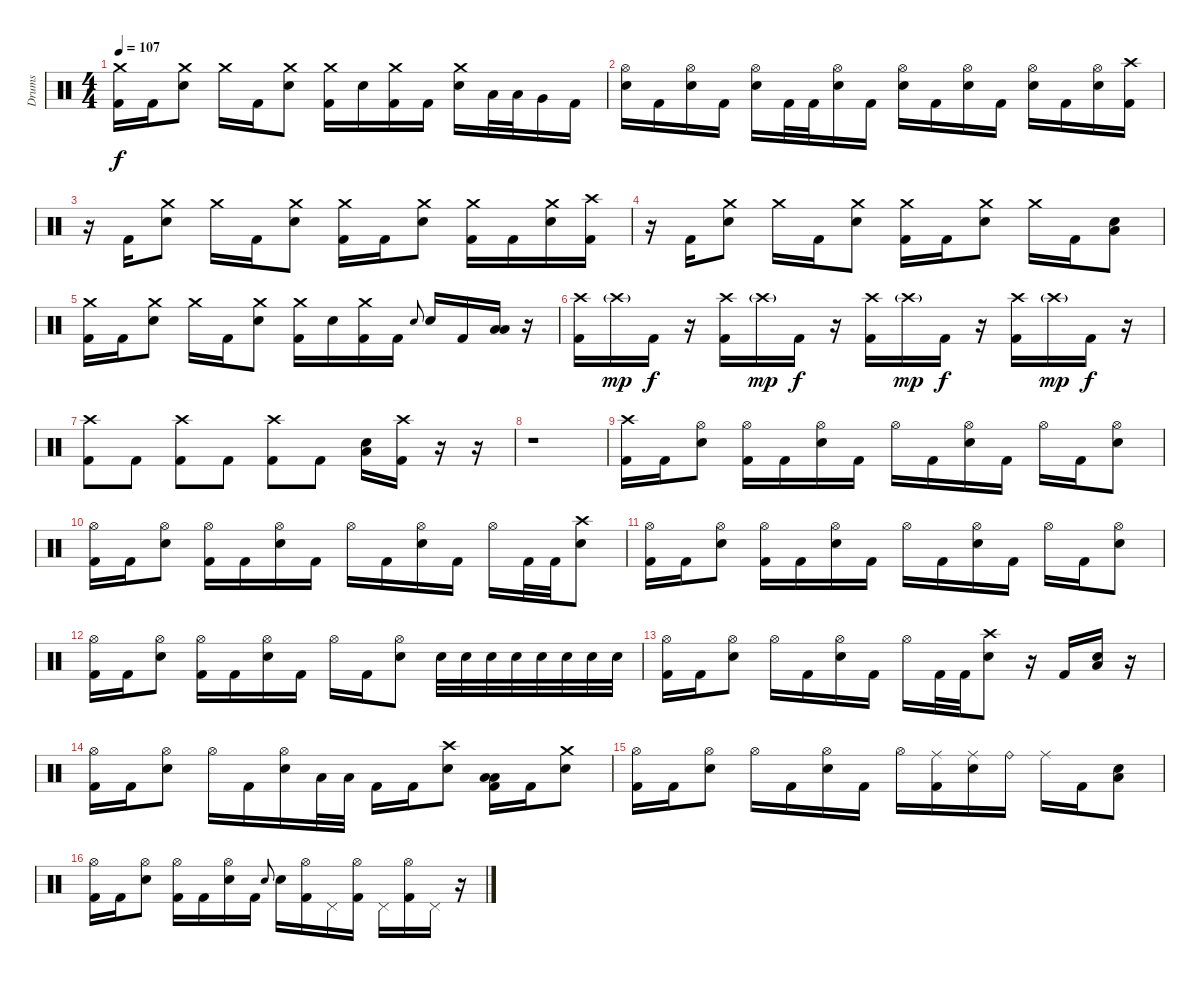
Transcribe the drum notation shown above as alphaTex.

\track ("Drums" "Drums") {instrument percussion}
\staff {score}
\articulation defaults
\ts (4 4)
\tempo 107
\clef neutral
\ks c
("Crash medium (hit)" "Kick (hit) 2").16{dy f} "Kick (hit) 2".16 ("Crash medium (hit)" "Snare (hit) 2").8 "Crash medium (hit)".16 "Kick (hit) 2".16 ("Crash medium (hit)" "Snare (hit) 2").8 ("Crash medium (hit)" "Kick (hit) 2").16 "Snare (hit) 2".16 ("Crash medium (hit)" "Kick (hit) 2").16 "Kick (hit) 2".16 ("Crash medium (hit)" "Snare (hit) 2").16 "Low Tom (hit)".32 "Low Tom (hit)".32 "Very Low Tom (hit)".16 "Kick (hit) 2".16 |
("Hi-Hat (open)" "Snare (hit) 2").16 "Kick (hit) 2".16 ("Hi-Hat (open)" "Snare (hit) 2").16 "Kick (hit) 2".16 ("Hi-Hat (open)" "Snare (hit) 2").16 "Kick (hit) 2".32 "Kick (hit) 2".32 ("Hi-Hat (open)" "Snare (hit) 2").16 "Kick (hit) 2".16 ("Hi-Hat (open)" "Snare (hit) 2").16 "Kick (hit) 2".16 ("Hi-Hat (open)" "Snare (hit) 2").16 "Kick (hit) 2".16 ("Hi-Hat (open)" "Snare (hit) 2").16 "Kick (hit) 2".16 ("Hi-Hat (open)" "Snare (hit) 2").16 ("Crash high (hit)" "Kick (hit) 2").16 |
r.16 "Kick (hit) 2".16 ("Crash medium (hit)" "Snare (hit) 2").8 "Crash medium (hit)".16 "Kick (hit) 2".16 ("Crash medium (hit)" "Snare (hit) 2").8 ("Crash medium (hit)" "Kick (hit) 2").16 "Kick (hit) 2".16 ("Crash medium (hit)" "Snare (hit) 2").8 ("Crash medium (hit)" "Kick (hit) 2").16 "Kick (hit) 2".16 ("Crash medium (hit)" "Snare (hit) 2").16 ("Crash high (hit)" "Kick (hit) 2").16 |
r.16 "Kick (hit) 2".16 ("Crash medium (hit)" "Snare (hit) 2").8 "Crash medium (hit)".16 "Kick (hit) 2".16 ("Crash medium (hit)" "Snare (hit) 2").8 ("Crash medium (hit)" "Kick (hit) 2").16 "Kick (hit) 2".16 ("Crash medium (hit)" "Snare (hit) 2").8 "Crash medium (hit)".16 "Kick (hit) 2".16 ("Low Floor Tom (hit)" "Snare (hit) 2").8 |
("Crash medium (hit)" "Kick (hit) 2").16 "Kick (hit) 2".16 ("Crash medium (hit)" "Snare (hit) 2").8 "Crash medium (hit)".16 "Kick (hit) 2".16 ("Crash medium (hit)" "Snare (hit) 2").8 ("Crash medium (hit)" "Kick (hit) 2").16 "Snare (hit) 2".16 ("Crash medium (hit)" "Kick (hit) 2").16 "Kick (hit) 2".16 "Snare (hit) 2".8{gr onbeat} "Snare (hit) 2".16 "Kick (hit) 2".16 ("Low Tom (hit)" "Low Floor Tom (hit)").16 r.16 |
("Crash high (hit)" "Kick (hit) 2").16 "Crash high (hit)"{g}.16{dy mp volume 0} "Kick (hit) 2".16{dy f volume 13} r.16 ("Crash high (hit)" "Kick (hit) 2").16 "Crash high (hit)"{g}.16{dy mp volume 0} "Kick (hit) 2".16{dy f volume 13} r.16 ("Crash high (hit)" "Kick (hit) 2").16 "Crash high (hit)"{g}.16{dy mp volume 0} "Kick (hit) 2".16{dy f volume 13} r.16 ("Crash high (hit)" "Kick (hit) 2").16 "Crash high (hit)"{g}.16{dy mp volume 0} "Kick (hit) 2".16{dy f volume 13} r.16 |
("Crash high (hit)" "Kick (hit) 2").8 "Kick (hit) 2".8 ("Crash high (hit)" "Kick (hit) 2").8 "Kick (hit) 2".8 ("Crash high (hit)" "Kick (hit) 2").8 "Kick (hit) 2".8 ("Low Floor Tom (hit)" "Snare (hit) 2").16 ("Crash high (hit)" "Kick (hit) 2").16 r.16 r.16 |
r.1 |
("Crash high (hit)" "Kick (hit) 2").16 "Kick (hit) 2".16 ("Hi-Hat (open)" "Snare (hit) 2").8 ("Hi-Hat (open)" "Kick (hit) 2").16 "Kick (hit) 2".16 ("Hi-Hat (open)" "Snare (hit) 2").16 "Kick (hit) 2".16 "Hi-Hat (open)".16 "Kick (hit) 2".16 ("Hi-Hat (open)" "Snare (hit) 2").16 "Kick (hit) 2".16 "Hi-Hat (open)".16 "Kick (hit) 2".16 ("Hi-Hat (open)" "Snare (hit) 2").8 |
("Hi-Hat (open)" "Kick (hit) 2").16 "Kick (hit) 2".16 ("Hi-Hat (open)" "Snare (hit) 2").8 ("Hi-Hat (open)" "Kick (hit) 2").16 "Kick (hit) 2".16 ("Hi-Hat (open)" "Snare (hit) 2").16 "Kick (hit) 2".16 "Hi-Hat (open)".16 "Kick (hit) 2".16 ("Hi-Hat (open)" "Snare (hit) 2").16 "Kick (hit) 2".16 "Hi-Hat (open)".16 "Kick (hit) 2".32 "Kick (hit) 2".32 ("Crash high (hit)" "Snare (hit) 2").8 |
("Hi-Hat (open)" "Kick (hit) 2").16 "Kick (hit) 2".16 ("Hi-Hat (open)" "Snare (hit) 2").8 ("Hi-Hat (open)" "Kick (hit) 2").16 "Kick (hit) 2".16 ("Hi-Hat (open)" "Snare (hit) 2").16 "Kick (hit) 2".16 "Hi-Hat (open)".16 "Kick (hit) 2".16 ("Hi-Hat (open)" "Snare (hit) 2").16 "Kick (hit) 2".16 "Hi-Hat (open)".16 "Kick (hit) 2".16 ("Hi-Hat (open)" "Snare (hit) 2").8 |
("Hi-Hat (open)" "Kick (hit) 2").16 "Kick (hit) 2".16 ("Hi-Hat (open)" "Snare (hit) 2").8 ("Hi-Hat (open)" "Kick (hit) 2").16 "Kick (hit) 2".16 ("Hi-Hat (open)" "Snare (hit) 2").16 "Kick (hit) 2".16 "Hi-Hat (open)".16 "Kick (hit) 2".16 ("Hi-Hat (open)" "Snare (hit) 2").8 "Snare (hit) 2".32 "Snare (hit) 2".32 "Snare (hit) 2".32 "Snare (hit) 2".32 "Snare (hit) 2".32 "Snare (hit) 2".32 "Snare (hit) 2".32 "Snare (hit) 2".32 |
("Hi-Hat (open)" "Kick (hit) 2").16 "Kick (hit) 2".16 ("Hi-Hat (open)" "Snare (hit) 2").8 "Hi-Hat (open)".16 "Kick (hit) 2".16 ("Hi-Hat (open)" "Snare (hit) 2").16 "Kick (hit) 2".16 "Hi-Hat (open)".16 "Kick (hit) 2".32 "Kick (hit) 2".32 ("Crash high (hit)" "Snare (hit) 2").8 r.16 "Kick (hit) 2".16 ("Low Floor Tom (hit)" "Snare (hit) 2").16 r.16 |
("Hi-Hat (open)" "Kick (hit) 2").16 "Kick (hit) 2".16 ("Hi-Hat (open)" "Snare (hit) 2").8 "Hi-Hat (open)".16 "Kick (hit) 2".16 ("Hi-Hat (open)" "Snare (hit) 2").16 "Low Tom (hit)".32 "Low Floor Tom (hit)".32 "Kick (hit) 2".16 "Kick (hit) 2".16 ("Crash high (hit)" "Snare (hit) 2").8 ("Low Tom (hit)" "Low Floor Tom (hit)" "Kick (hit) 2").16 "Kick (hit) 2".16 ("Crash medium (hit)" "Snare (hit) 2").8 |
("Hi-Hat (open)" "Kick (hit) 2").16 "Kick (hit) 2".16 ("Hi-Hat (open)" "Snare (hit) 2").8 "Hi-Hat (open)".16 "Kick (hit) 2".16 ("Hi-Hat (open)" "Snare (hit) 2").16 "Kick (hit) 2".16 "Hi-Hat (open)".16 ("Ride (middle)" "Kick (hit) 2").16 ("Ride (middle)" "Snare (hit) 2").16 "Ride (bell)".16 "Ride (middle)".16 "Kick (hit) 2".16 ("Low Floor Tom (hit)" "Snare (hit) 2").8 |
("Hi-Hat (open)" "Kick (hit) 2").16 "Kick (hit) 2".16 ("Hi-Hat (open)" "Snare (hit) 2").8 ("Hi-Hat (open)" "Kick (hit) 2").16 "Kick (hit) 2".16 ("Hi-Hat (open)" "Snare (hit) 2").16 "Kick (hit) 2".16 "Snare (hit) 2".8{gr onbeat} "Snare (hit) 2".16 ("Hi-Hat (open)" "Kick (hit) 2").16 "Pedal Hi-Hat (hit)".16 ("Hi-Hat (open)" "Kick (hit) 2").16 "Pedal Hi-Hat (hit)".16 ("Hi-Hat (open)" "Kick (hit) 2").16 "Pedal Hi-Hat (hit)".16 r.16
